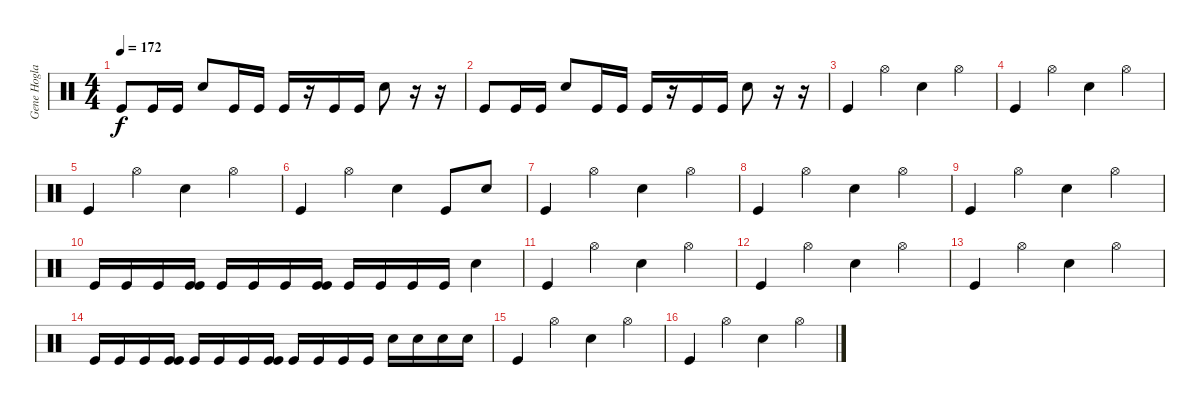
\track ("Gene Hoglan" "Gene Hogla") {instrument percussion}
\staff {score}
\articulation defaults
\ts (4 4)
\tempo 172
\clef neutral
\ks c "Kick (hit)".8{dy f} "Kick (hit)".16 "Kick (hit)".16 "Snare (hit) 2".8 "Kick (hit)".16 "Kick (hit)".16 "Kick (hit)".16
r.16 "Kick (hit)".16 "Kick (hit)".16 "Snare (hit) 2".8 r.16 r.16 |
"Kick (hit)".8 "Kick (hit)".16 "Kick (hit)".16 "Snare (hit) 2".8 "Kick (hit)".16 "Kick (hit)".16 "Kick (hit)".16 r.16 "Kick (hit)".16 "Kick (hit)".16 "Snare (hit) 2".8 r.16 r.16 |
"Kick (hit)".4 "Hi-Hat (open)".4 "Snare (hit) 2".4 "Hi-Hat (open)".4 |
"Kick (hit)".4 "Hi-Hat (open)".4 "Snare (hit) 2".4 "Hi-Hat (open)".4 |
"Kick (hit)".4 "Hi-Hat (open)".4 "Snare (hit) 2".4 "Hi-Hat (open)".4 |
"Kick (hit)".4 "Hi-Hat (open)".4 "Snare (hit) 2".4 "Kick (hit)".8 "Snare (hit) 2".8 |
"Kick (hit)".4 "Hi-Hat (open)".4 "Snare (hit) 2".4 "Hi-Hat (open)".4 |
"Kick (hit)".4 "Hi-Hat (open)".4 "Snare (hit) 2".4 "Hi-Hat (open)".4 |
"Kick (hit)".4 "Hi-Hat (open)".4 "Snare (hit) 2".4 "Hi-Hat (open)".4 |
"Kick (hit)".16 "Kick (hit)".16 "Kick (hit)".16 ("Kick (hit)" "Kick (hit)").16 "Kick (hit)".16 "Kick (hit)".16 "Kick (hit)".16 ("Kick (hit)" "Kick (hit)").16 "Kick (hit)".16 "Kick (hit)".16 "Kick (hit)".16 "Kick (hit)".16 "Snare (hit) 2".4 |
"Kick (hit)".4 "Hi-Hat (open)".4 "Snare (hit) 2".4 "Hi-Hat (open)".4 |
"Kick (hit)".4 "Hi-Hat (open)".4 "Snare (hit) 2".4 "Hi-Hat (open)".4 |
"Kick (hit)".4 "Hi-Hat (open)".4 "Snare (hit) 2".4 "Hi-Hat (open)".4 |
"Kick (hit)".16 "Kick (hit)".16 "Kick (hit)".16 ("Kick (hit)" "Kick (hit)").16 "Kick (hit)".16 "Kick (hit)".16 "Kick (hit)".16 ("Kick (hit)" "Kick (hit)").16 "Kick (hit)".16 "Kick (hit)".16 "Kick (hit)".16 "Kick (hit)".16 "Snare (hit) 2".16 "Snare (hit) 2".16 "Snare (hit) 2".16 "Snare (hit) 2".16 |
"Kick (hit)".4 "Hi-Hat (open)".4 "Snare (hit) 2".4 "Hi-Hat (open)".4 |
"Kick (hit)".4 "Hi-Hat (open)".4 "Snare (hit) 2".4 "Hi-Hat (open)".4
